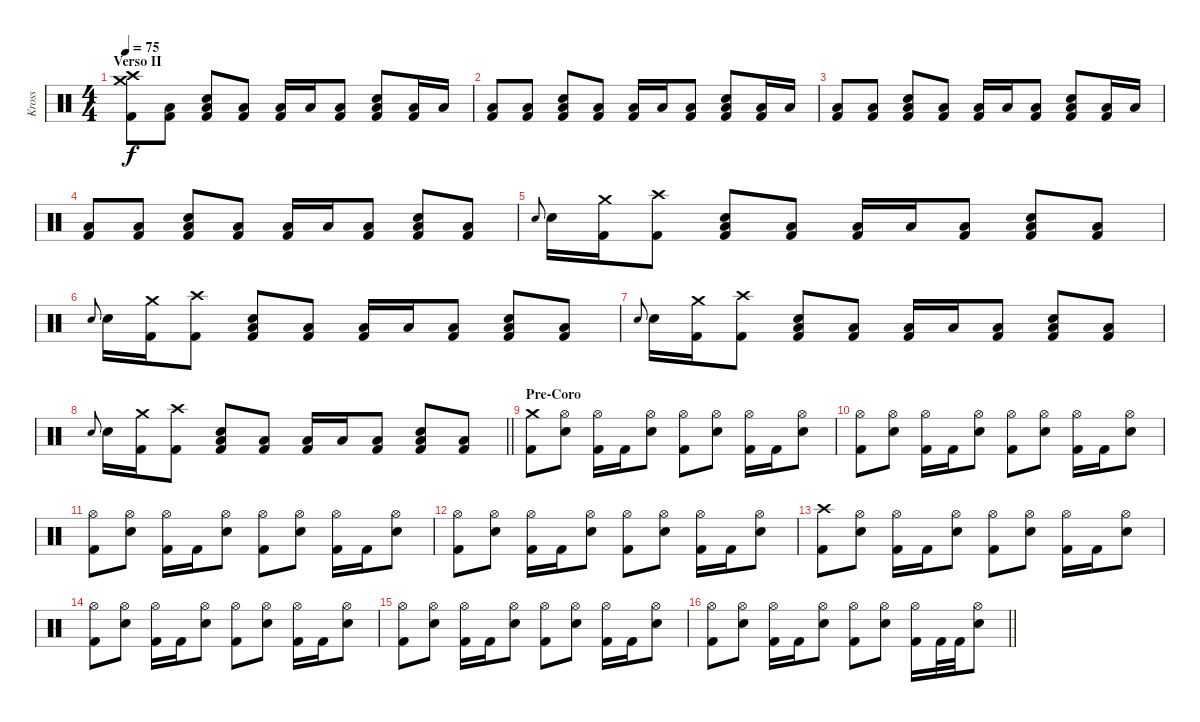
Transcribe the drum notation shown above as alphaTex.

\track ("Kross" "Kross") {instrument percussion}
\staff
\articulation defaults
\ts (4 4)
\section ("" "Verso II")
\tempo 75
\clef neutral
\ks c
("Crash medium (hit)" "Crash high (hit)" "Kick (hit) 2").8{dy f} ("Low Floor Tom (hit)" "Kick (hit) 2").8 ("Electric Snare (hit)" "Low Floor Tom (hit)" "Kick (hit) 2").8 ("Low Floor Tom (hit)" "Kick (hit) 2").8 ("Low Floor Tom (hit)" "Kick (hit) 2").16 "Low Tom (hit)".16 ("Low Floor Tom (hit)" "Kick (hit) 2").8 ("Electric Snare (hit)" "Low Floor Tom (hit)" "Kick (hit) 2").8 ("Low Floor Tom (hit)" "Kick (hit) 2").16 "Low Tom (hit)".16 |
("Low Floor Tom (hit)" "Kick (hit) 2").8 ("Low Floor Tom (hit)" "Kick (hit) 2").8 ("Electric Snare (hit)" "Low Floor Tom (hit)" "Kick (hit) 2").8 ("Low Floor Tom (hit)" "Kick (hit) 2").8 ("Low Floor Tom (hit)" "Kick (hit) 2").16 "Low Tom (hit)".16 ("Low Floor Tom (hit)" "Kick (hit) 2").8 ("Electric Snare (hit)" "Low Floor Tom (hit)" "Kick (hit) 2").8 ("Low Floor Tom (hit)" "Kick (hit) 2").16 "Low Tom (hit)".16 |
("Low Floor Tom (hit)" "Kick (hit) 2").8 ("Low Floor Tom (hit)" "Kick (hit) 2").8 ("Electric Snare (hit)" "Low Floor Tom (hit)" "Kick (hit) 2").8 ("Low Floor Tom (hit)" "Kick (hit) 2").8 ("Low Floor Tom (hit)" "Kick (hit) 2").16 "Low Tom (hit)".16 ("Low Floor Tom (hit)" "Kick (hit) 2").8 ("Electric Snare (hit)" "Low Floor Tom (hit)" "Kick (hit) 2").8 ("Low Floor Tom (hit)" "Kick (hit) 2").16 "Low Tom (hit)".16 |
("Low Floor Tom (hit)" "Kick (hit) 2").8 ("Low Floor Tom (hit)" "Kick (hit) 2").8 ("Electric Snare (hit)" "Low Floor Tom (hit)" "Kick (hit) 2").8 ("Low Floor Tom (hit)" "Kick (hit) 2").8 ("Low Floor Tom (hit)" "Kick (hit) 2").16 "Low Tom (hit)".16 ("Low Floor Tom (hit)" "Kick (hit) 2").8 ("Electric Snare (hit)" "Low Floor Tom (hit)" "Kick (hit) 2").8 ("Low Floor Tom (hit)" "Kick (hit) 2").8 |
"Electric Snare (hit)".8{gr onbeat} "Electric Snare (hit)".16 ("Crash medium (hit)" "Kick (hit) 2").16 ("Crash high (hit)" "Kick (hit) 2").8 ("Electric Snare (hit)" "Low Floor Tom (hit)" "Kick (hit) 2").8 ("Low Floor Tom (hit)" "Kick (hit) 2").8 ("Low Floor Tom (hit)" "Kick (hit) 2").16 "Low Tom (hit)".16 ("Low Floor Tom (hit)" "Kick (hit) 2").8 ("Electric Snare (hit)" "Low Floor Tom (hit)" "Kick (hit) 2").8 ("Low Floor Tom (hit)" "Kick (hit) 2").8 |
"Electric Snare (hit)".8{gr onbeat} "Electric Snare (hit)".16 ("Crash medium (hit)" "Kick (hit) 2").16 ("Crash high (hit)" "Kick (hit) 2").8 ("Electric Snare (hit)" "Low Floor Tom (hit)" "Kick (hit) 2").8 ("Low Floor Tom (hit)" "Kick (hit) 2").8 ("Low Floor Tom (hit)" "Kick (hit) 2").16 "Low Tom (hit)".16 ("Low Floor Tom (hit)" "Kick (hit) 2").8 ("Electric Snare (hit)" "Low Floor Tom (hit)" "Kick (hit) 2").8 ("Low Floor Tom (hit)" "Kick (hit) 2").8 |
"Electric Snare (hit)".8{gr onbeat} "Electric Snare (hit)".16 ("Crash medium (hit)" "Kick (hit) 2").16 ("Crash high (hit)" "Kick (hit) 2").8 ("Electric Snare (hit)" "Low Floor Tom (hit)" "Kick (hit) 2").8 ("Low Floor Tom (hit)" "Kick (hit) 2").8 ("Low Floor Tom (hit)" "Kick (hit) 2").16 "Low Tom (hit)".16 ("Low Floor Tom (hit)" "Kick (hit) 2").8 ("Electric Snare (hit)" "Low Floor Tom (hit)" "Kick (hit) 2").8 ("Low Floor Tom (hit)" "Kick (hit) 2").8 |
\barLineRight lightlight "Electric Snare (hit)".8{gr onbeat} "Electric Snare (hit)".16
("Crash medium (hit)" "Kick (hit) 2").16 ("Crash high (hit)" "Kick (hit) 2").8 ("Electric Snare (hit)" "Low Floor Tom (hit)" "Kick (hit) 2").8 ("Low Floor Tom (hit)" "Kick (hit) 2").8 ("Low Floor Tom (hit)" "Kick (hit) 2").16 "Low Tom (hit)".16 ("Low Floor Tom (hit)" "Kick (hit) 2").8 ("Electric Snare (hit)" "Low Floor Tom (hit)" "Kick (hit) 2").8 ("Low Floor Tom (hit)" "Kick (hit) 2").8 |
\section ("" "Pre-Coro")
("Crash medium (hit)" "Kick (hit) 2").8 ("Hi-Hat (open)" "Electric Snare (hit)").8 ("Hi-Hat (open)" "Kick (hit) 2").16 "Kick (hit) 2".16 ("Hi-Hat (open)" "Electric Snare (hit)").8 ("Hi-Hat (open)" "Kick (hit) 2").8 ("Hi-Hat (open)" "Electric Snare (hit)").8 ("Hi-Hat (open)" "Kick (hit) 2").16 "Kick (hit) 2".16 ("Hi-Hat (open)" "Electric Snare (hit)").8 |
("Hi-Hat (open)" "Kick (hit) 2").8 ("Hi-Hat (open)" "Electric Snare (hit)").8 ("Hi-Hat (open)" "Kick (hit) 2").16 "Kick (hit) 2".16 ("Hi-Hat (open)" "Electric Snare (hit)").8 ("Hi-Hat (open)" "Kick (hit) 2").8 ("Hi-Hat (open)" "Electric Snare (hit)").8 ("Hi-Hat (open)" "Kick (hit) 2").16 "Kick (hit) 2".16 ("Hi-Hat (open)" "Electric Snare (hit)").8 |
("Hi-Hat (open)" "Kick (hit) 2").8 ("Hi-Hat (open)" "Electric Snare (hit)").8 ("Hi-Hat (open)" "Kick (hit) 2").16 "Kick (hit) 2".16 ("Hi-Hat (open)" "Electric Snare (hit)").8 ("Hi-Hat (open)" "Kick (hit) 2").8 ("Hi-Hat (open)" "Electric Snare (hit)").8 ("Hi-Hat (open)" "Kick (hit) 2").16 "Kick (hit) 2".16 ("Hi-Hat (open)" "Electric Snare (hit)").8 |
("Hi-Hat (open)" "Kick (hit) 2").8 ("Hi-Hat (open)" "Electric Snare (hit)").8 ("Hi-Hat (open)" "Kick (hit) 2").16 "Kick (hit) 2".16 ("Hi-Hat (open)" "Electric Snare (hit)").8 ("Hi-Hat (open)" "Kick (hit) 2").8 ("Hi-Hat (open)" "Electric Snare (hit)").8 ("Hi-Hat (open)" "Kick (hit) 2").16 "Kick (hit) 2".16 ("Hi-Hat (open)" "Electric Snare (hit)").8 |
("Crash high (hit)" "Kick (hit) 2").8 ("Hi-Hat (open)" "Electric Snare (hit)").8 ("Hi-Hat (open)" "Kick (hit) 2").16 "Kick (hit) 2".16 ("Hi-Hat (open)" "Electric Snare (hit)").8 ("Hi-Hat (open)" "Kick (hit) 2").8 ("Hi-Hat (open)" "Electric Snare (hit)").8 ("Hi-Hat (open)" "Kick (hit) 2").16 "Kick (hit) 2".16 ("Hi-Hat (open)" "Electric Snare (hit)").8 |
("Hi-Hat (open)" "Kick (hit) 2").8 ("Hi-Hat (open)" "Electric Snare (hit)").8 ("Hi-Hat (open)" "Kick (hit) 2").16 "Kick (hit) 2".16 ("Hi-Hat (open)" "Electric Snare (hit)").8 ("Hi-Hat (open)" "Kick (hit) 2").8 ("Hi-Hat (open)" "Electric Snare (hit)").8 ("Hi-Hat (open)" "Kick (hit) 2").16 "Kick (hit) 2".16 ("Hi-Hat (open)" "Electric Snare (hit)").8 |
("Hi-Hat (open)" "Kick (hit) 2").8 ("Hi-Hat (open)" "Electric Snare (hit)").8 ("Hi-Hat (open)" "Kick (hit) 2").16 "Kick (hit) 2".16 ("Hi-Hat (open)" "Electric Snare (hit)").8 ("Hi-Hat (open)" "Kick (hit) 2").8 ("Hi-Hat (open)" "Electric Snare (hit)").8 ("Hi-Hat (open)" "Kick (hit) 2").16 "Kick (hit) 2".16 ("Hi-Hat (open)" "Electric Snare (hit)").8 |
\barLineRight lightlight
("Hi-Hat (open)" "Kick (hit) 2").8 ("Hi-Hat (open)" "Electric Snare (hit)").8 ("Hi-Hat (open)" "Kick (hit) 2").16 "Kick (hit) 2".16 ("Hi-Hat (open)" "Electric Snare (hit)").8 ("Hi-Hat (open)" "Kick (hit) 2").8 ("Hi-Hat (open)" "Electric Snare (hit)").8 ("Hi-Hat (open)" "Kick (hit) 2").16 "Kick (hit) 2".32 "Kick (hit) 2".32 ("Hi-Hat (open)" "Electric Snare (hit)").8
